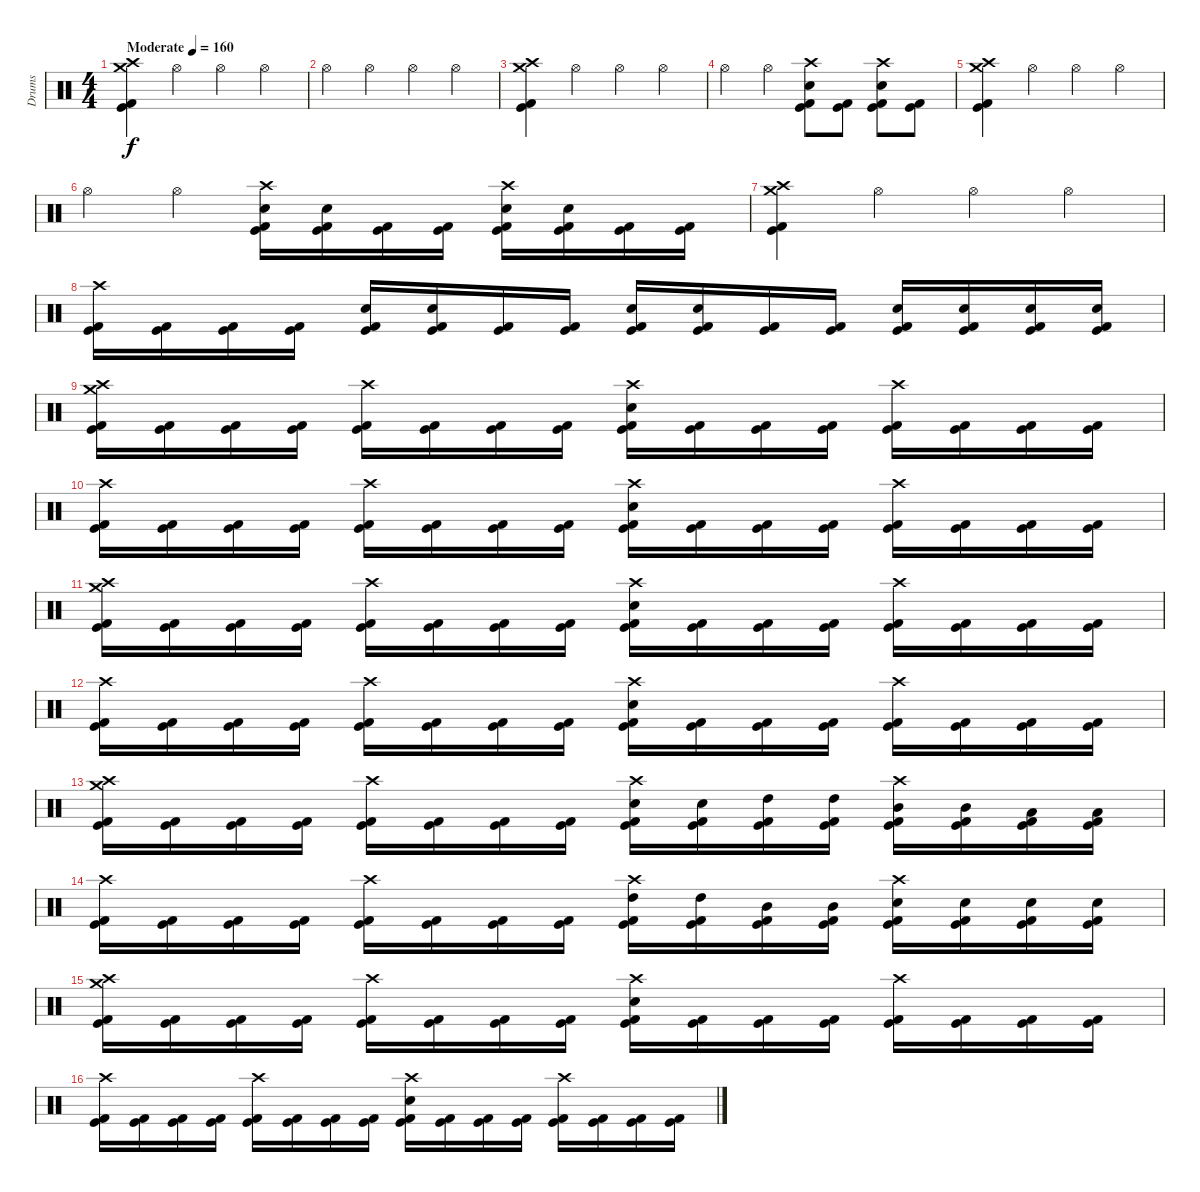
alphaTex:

\track ("Drums" "Drums") {instrument percussion}
\staff {score}
\articulation defaults
\ts (4 4)
\tempo (160 "Moderate")
\clef neutral
\ks c
("Crash medium (hit)" "Crash high (hit)" "Kick (hit)" "Kick (hit) 2").4{dy f} "Hi-Hat (open)".4 "Hi-Hat (open)".4 "Hi-Hat (open)".4 |
"Hi-Hat (open)".4 "Hi-Hat (open)".4 "Hi-Hat (open)".4 "Hi-Hat (open)".4 |
("Crash medium (hit)" "Crash high (hit)" "Kick (hit)" "Kick (hit) 2").4 "Hi-Hat (open)".4 "Hi-Hat (open)".4 "Hi-Hat (open)".4 |
"Hi-Hat (open)".4 "Hi-Hat (open)".4 ("Crash high (hit)" "Snare (hit) 2" "Kick (hit)" "Kick (hit) 2").8 ("Kick (hit)" "Kick (hit) 2").8 ("Crash high (hit)" "Snare (hit) 2" "Kick (hit)" "Kick (hit) 2").8 ("Kick (hit)" "Kick (hit) 2").8 |
("Crash medium (hit)" "Crash high (hit)" "Kick (hit)" "Kick (hit) 2").4 "Hi-Hat (open)".4 "Hi-Hat (open)".4 "Hi-Hat (open)".4 |
"Hi-Hat (open)".4 "Hi-Hat (open)".4 ("Crash high (hit)" "Snare (hit) 2" "Kick (hit)" "Kick (hit) 2").16 ("Snare (hit) 2" "Kick (hit)" "Kick (hit) 2").16 ("Kick (hit)" "Kick (hit) 2").16 ("Kick (hit)" "Kick (hit) 2").16 ("Crash high (hit)" "Snare (hit) 2" "Kick (hit)" "Kick (hit) 2").16 ("Snare (hit) 2" "Kick (hit)" "Kick (hit) 2").16 ("Kick (hit)" "Kick (hit) 2").16 ("Kick (hit)" "Kick (hit) 2").16 |
("Crash medium (hit)" "Crash high (hit)" "Kick (hit)" "Kick (hit) 2").4 "Hi-Hat (open)".4 "Hi-Hat (open)".4 "Hi-Hat (open)".4 |
("Crash high (hit)" "Kick (hit)" "Kick (hit) 2").16 ("Kick (hit)" "Kick (hit) 2").16 ("Kick (hit)" "Kick (hit) 2").16 ("Kick (hit)" "Kick (hit) 2").16 ("Snare (hit) 2" "Kick (hit)" "Kick (hit) 2").16 ("Snare (hit) 2" "Kick (hit)" "Kick (hit) 2").16 ("Kick (hit)" "Kick (hit) 2").16 ("Kick (hit)" "Kick (hit) 2").16 ("Snare (hit) 2" "Kick (hit)" "Kick (hit) 2").16 ("Snare (hit) 2" "Kick (hit)" "Kick (hit) 2").16 ("Kick (hit)" "Kick (hit) 2").16 ("Kick (hit)" "Kick (hit) 2").16 ("Snare (hit) 2" "Kick (hit)" "Kick (hit) 2").16 ("Snare (hit) 2" "Kick (hit)" "Kick (hit) 2").16 ("Snare (hit) 2" "Kick (hit)" "Kick (hit) 2").16 ("Snare (hit) 2" "Kick (hit)" "Kick (hit) 2").16 |
("Crash medium (hit)" "Crash high (hit)" "Kick (hit)" "Kick (hit) 2").16 ("Kick (hit)" "Kick (hit) 2").16 ("Kick (hit)" "Kick (hit) 2").16 ("Kick (hit)" "Kick (hit) 2").16 ("Crash high (hit)" "Kick (hit)" "Kick (hit) 2").16 ("Kick (hit)" "Kick (hit) 2").16 ("Kick (hit)" "Kick (hit) 2").16 ("Kick (hit)" "Kick (hit) 2").16 ("Crash high (hit)" "Snare (hit) 2" "Kick (hit)" "Kick (hit) 2").16 ("Kick (hit)" "Kick (hit) 2").16 ("Kick (hit)" "Kick (hit) 2").16 ("Kick (hit)" "Kick (hit) 2").16 ("Crash high (hit)" "Kick (hit)" "Kick (hit) 2").16 ("Kick (hit)" "Kick (hit) 2").16 ("Kick (hit)" "Kick (hit) 2").16 ("Kick (hit)" "Kick (hit) 2").16 |
("Crash high (hit)" "Kick (hit)" "Kick (hit) 2").16 ("Kick (hit)" "Kick (hit) 2").16 ("Kick (hit)" "Kick (hit) 2").16 ("Kick (hit)" "Kick (hit) 2").16 ("Crash high (hit)" "Kick (hit)" "Kick (hit) 2").16 ("Kick (hit)" "Kick (hit) 2").16 ("Kick (hit)" "Kick (hit) 2").16 ("Kick (hit)" "Kick (hit) 2").16 ("Crash high (hit)" "Snare (hit) 2" "Kick (hit)" "Kick (hit) 2").16 ("Kick (hit)" "Kick (hit) 2").16 ("Kick (hit)" "Kick (hit) 2").16 ("Kick (hit)" "Kick (hit) 2").16 ("Crash high (hit)" "Kick (hit)" "Kick (hit) 2").16 ("Kick (hit)" "Kick (hit) 2").16 ("Kick (hit)" "Kick (hit) 2").16 ("Kick (hit)" "Kick (hit) 2").16 |
("Crash medium (hit)" "Crash high (hit)" "Kick (hit)" "Kick (hit) 2").16 ("Kick (hit)" "Kick (hit) 2").16 ("Kick (hit)" "Kick (hit) 2").16 ("Kick (hit)" "Kick (hit) 2").16 ("Crash high (hit)" "Kick (hit)" "Kick (hit) 2").16 ("Kick (hit)" "Kick (hit) 2").16 ("Kick (hit)" "Kick (hit) 2").16 ("Kick (hit)" "Kick (hit) 2").16 ("Crash high (hit)" "Snare (hit) 2" "Kick (hit)" "Kick (hit) 2").16 ("Kick (hit)" "Kick (hit) 2").16 ("Kick (hit)" "Kick (hit) 2").16 ("Kick (hit)" "Kick (hit) 2").16 ("Crash high (hit)" "Kick (hit)" "Kick (hit) 2").16 ("Kick (hit)" "Kick (hit) 2").16 ("Kick (hit)" "Kick (hit) 2").16 ("Kick (hit)" "Kick (hit) 2").16 |
("Crash high (hit)" "Kick (hit)" "Kick (hit) 2").16 ("Kick (hit)" "Kick (hit) 2").16 ("Kick (hit)" "Kick (hit) 2").16 ("Kick (hit)" "Kick (hit) 2").16 ("Crash high (hit)" "Kick (hit)" "Kick (hit) 2").16 ("Kick (hit)" "Kick (hit) 2").16 ("Kick (hit)" "Kick (hit) 2").16 ("Kick (hit)" "Kick (hit) 2").16 ("Crash high (hit)" "Snare (hit) 2" "Kick (hit)" "Kick (hit) 2").16 ("Kick (hit)" "Kick (hit) 2").16 ("Kick (hit)" "Kick (hit) 2").16 ("Kick (hit)" "Kick (hit) 2").16 ("Crash high (hit)" "Kick (hit)" "Kick (hit) 2").16 ("Kick (hit)" "Kick (hit) 2").16 ("Kick (hit)" "Kick (hit) 2").16 ("Kick (hit)" "Kick (hit) 2").16 |
("Crash medium (hit)" "Crash high (hit)" "Kick (hit)" "Kick (hit) 2").16 ("Kick (hit)" "Kick (hit) 2").16 ("Kick (hit)" "Kick (hit) 2").16 ("Kick (hit)" "Kick (hit) 2").16 ("Crash high (hit)" "Kick (hit)" "Kick (hit) 2").16 ("Kick (hit)" "Kick (hit) 2").16 ("Kick (hit)" "Kick (hit) 2").16 ("Kick (hit)" "Kick (hit) 2").16 ("Crash high (hit)" "Snare (hit) 2" "Kick (hit)" "Kick (hit) 2").16 ("Snare (hit) 2" "Kick (hit)" "Kick (hit) 2").16 ("High Tom (hit)" "Kick (hit)" "Kick (hit) 2").16 ("High Tom (hit)" "Kick (hit)" "Kick (hit) 2").16 ("Crash high (hit)" "Mid Tom (hit)" "Kick (hit)" "Kick (hit) 2").16 ("Mid Tom (hit)" "Kick (hit)" "Kick (hit) 2").16 ("Low Tom (hit)" "Kick (hit)" "Kick (hit) 2").16 ("Low Tom (hit)" "Kick (hit)" "Kick (hit) 2").16 |
("Crash high (hit)" "Kick (hit)" "Kick (hit) 2").16 ("Kick (hit)" "Kick (hit) 2").16 ("Kick (hit)" "Kick (hit) 2").16 ("Kick (hit)" "Kick (hit) 2").16 ("Crash high (hit)" "Kick (hit)" "Kick (hit) 2").16 ("Kick (hit)" "Kick (hit) 2").16 ("Kick (hit)" "Kick (hit) 2").16 ("Kick (hit)" "Kick (hit) 2").16 ("Crash high (hit)" "High Tom (hit)" "Kick (hit)" "Kick (hit) 2").16 ("High Tom (hit)" "Kick (hit)" "Kick (hit) 2").16 ("Mid Tom (hit)" "Kick (hit)" "Kick (hit) 2").16 ("Mid Tom (hit)" "Kick (hit)" "Kick (hit) 2").16 ("Crash high (hit)" "Snare (hit) 2" "Kick (hit)" "Kick (hit) 2").16 ("Snare (hit) 2" "Kick (hit)" "Kick (hit) 2").16 ("Snare (hit) 2" "Kick (hit)" "Kick (hit) 2").16 ("Snare (hit) 2" "Kick (hit)" "Kick (hit) 2").16 |
("Crash medium (hit)" "Crash high (hit)" "Kick (hit)" "Kick (hit) 2").16 ("Kick (hit)" "Kick (hit) 2").16 ("Kick (hit)" "Kick (hit) 2").16 ("Kick (hit)" "Kick (hit) 2").16 ("Crash high (hit)" "Kick (hit)" "Kick (hit) 2").16 ("Kick (hit)" "Kick (hit) 2").16 ("Kick (hit)" "Kick (hit) 2").16 ("Kick (hit)" "Kick (hit) 2").16 ("Crash high (hit)" "Snare (hit) 2" "Kick (hit)" "Kick (hit) 2").16 ("Kick (hit)" "Kick (hit) 2").16 ("Kick (hit)" "Kick (hit) 2").16 ("Kick (hit)" "Kick (hit) 2").16 ("Crash high (hit)" "Kick (hit)" "Kick (hit) 2").16 ("Kick (hit)" "Kick (hit) 2").16 ("Kick (hit)" "Kick (hit) 2").16 ("Kick (hit)" "Kick (hit) 2").16 |
("Crash high (hit)" "Kick (hit)" "Kick (hit) 2").16 ("Kick (hit)" "Kick (hit) 2").16 ("Kick (hit)" "Kick (hit) 2").16 ("Kick (hit)" "Kick (hit) 2").16 ("Crash high (hit)" "Kick (hit)" "Kick (hit) 2").16 ("Kick (hit)" "Kick (hit) 2").16 ("Kick (hit)" "Kick (hit) 2").16 ("Kick (hit)" "Kick (hit) 2").16 ("Crash high (hit)" "Snare (hit) 2" "Kick (hit)" "Kick (hit) 2").16 ("Kick (hit)" "Kick (hit) 2").16 ("Kick (hit)" "Kick (hit) 2").16 ("Kick (hit)" "Kick (hit) 2").16 ("Crash high (hit)" "Kick (hit)" "Kick (hit) 2").16 ("Kick (hit)" "Kick (hit) 2").16 ("Kick (hit)" "Kick (hit) 2").16 ("Kick (hit)" "Kick (hit) 2").16
